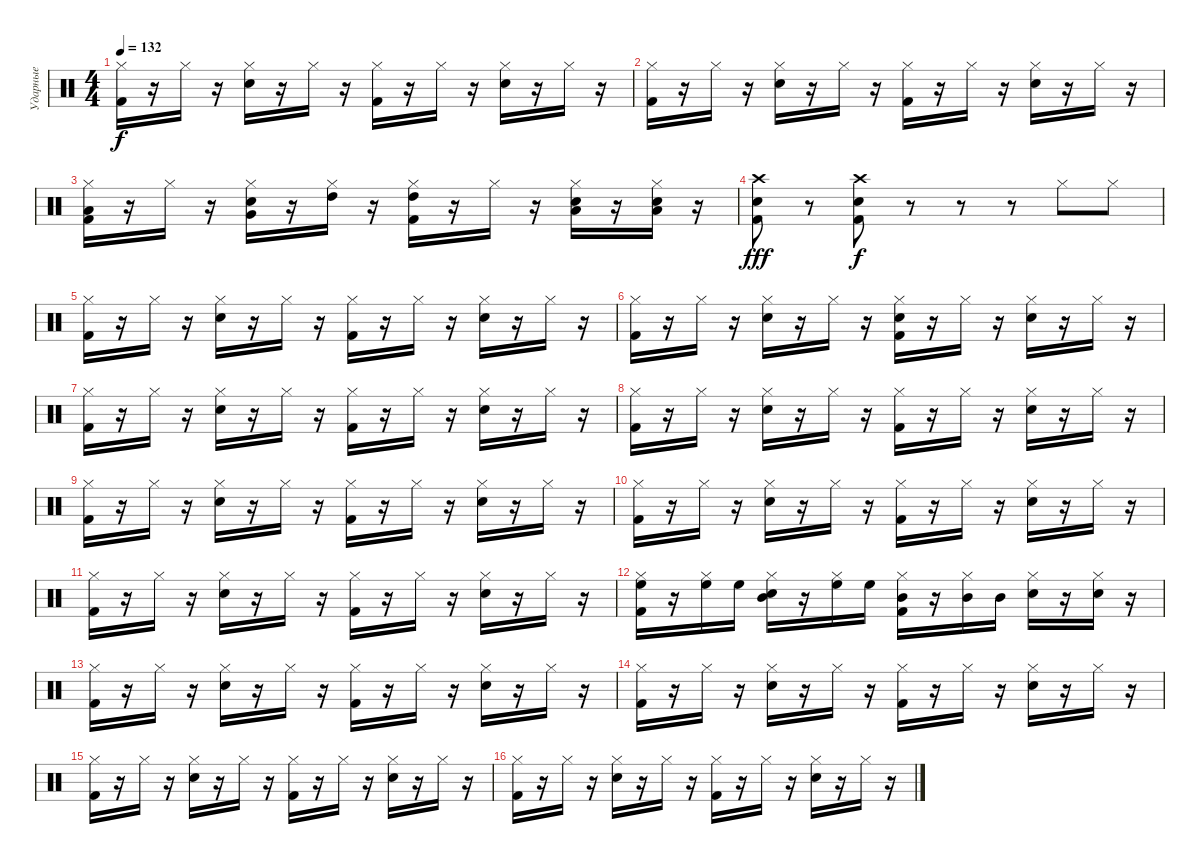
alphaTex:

\track ("Ударные" "Ударные") {instrument percussion}
\staff {score}
\articulation defaults
\ts (4 4)
\tempo 132
\clef neutral
\ks c
("Kick (hit) 2" "Hi-Hat (closed)").16{dy f} r.16 "Hi-Hat (closed)".16 r.16 ("Snare (hit) 2" "Hi-Hat (closed)").16 r.16 "Hi-Hat (closed)".16 r.16 ("Kick (hit) 2" "Hi-Hat (closed)").16 r.16 "Hi-Hat (closed)".16 r.16 ("Snare (hit) 2" "Hi-Hat (closed)").16 r.16 "Hi-Hat (closed)".16 r.16 |
("Kick (hit) 2" "Hi-Hat (closed)").16 r.16 "Hi-Hat (closed)".16 r.16 ("Snare (hit) 2" "Hi-Hat (closed)").16 r.16 "Hi-Hat (closed)".16 r.16 ("Kick (hit) 2" "Hi-Hat (closed)").16 r.16 "Hi-Hat (closed)".16 r.16 ("Snare (hit) 2" "Hi-Hat (closed)").16 r.16 "Hi-Hat (closed)".16 r.16 |
("Kick (hit) 2" "Low Tom (hit)" "Hi-Hat (closed)").16 r.16 "Hi-Hat (closed)".16 r.16 ("Snare (hit) 2" "Very Low Tom (hit)" "Hi-Hat (closed)").16 r.16 ("High Tom (hit)" "Hi-Hat (closed)").16 r.16 ("Kick (hit) 2" "High Tom (hit)" "Hi-Hat (closed)").16 r.16 "Hi-Hat (closed)".16 r.16 ("Snare (hit) 2" "Low Floor Tom (hit)" "Hi-Hat (closed)").16 r.16 ("Snare (hit) 2" "Low Floor Tom (hit)" "Hi-Hat (closed)").16 r.16 |
("Kick (hit) 2" "Snare (hit) 2" "Crash high (hit)").8{dy fff} r.8 ("Kick (hit) 2" "Snare (hit) 2" "Crash high (hit)").8{dy f} r.8 r.8 r.8 "Hi-Hat (closed)".8 "Hi-Hat (closed)".8 |
("Kick (hit) 2" "Hi-Hat (closed)").16 r.16 "Hi-Hat (closed)".16 r.16 ("Snare (hit) 2" "Hi-Hat (closed)").16 r.16 "Hi-Hat (closed)".16 r.16 ("Kick (hit) 2" "Hi-Hat (closed)").16 r.16 "Hi-Hat (closed)".16 r.16 ("Snare (hit) 2" "Hi-Hat (closed)").16 r.16 "Hi-Hat (closed)".16 r.16 |
("Kick (hit) 2" "Hi-Hat (closed)").16 r.16 "Hi-Hat (closed)".16 r.16 ("Snare (hit) 2" "Hi-Hat (closed)").16 r.16 "Hi-Hat (closed)".16 r.16 ("Kick (hit) 2" "Snare (hit)" "Hi-Hat (closed)").16 r.16 "Hi-Hat (closed)".16 r.16 ("Snare (hit) 2" "Hi-Hat (closed)").16 r.16 "Hi-Hat (closed)".16 r.16 |
("Kick (hit) 2" "Hi-Hat (closed)").16 r.16 "Hi-Hat (closed)".16 r.16 ("Snare (hit) 2" "Hi-Hat (closed)").16 r.16 "Hi-Hat (closed)".16 r.16 ("Kick (hit) 2" "Hi-Hat (closed)").16 r.16 "Hi-Hat (closed)".16 r.16 ("Snare (hit) 2" "Hi-Hat (closed)").16 r.16 "Hi-Hat (closed)".16 r.16 |
("Kick (hit) 2" "Hi-Hat (closed)").16 r.16 "Hi-Hat (closed)".16 r.16 ("Snare (hit) 2" "Hi-Hat (closed)").16 r.16 "Hi-Hat (closed)".16 r.16 ("Kick (hit) 2" "Hi-Hat (closed)").16 r.16 "Hi-Hat (closed)".16 r.16 ("Snare (hit) 2" "Hi-Hat (closed)").16 r.16 "Hi-Hat (closed)".16 r.16 |
("Kick (hit) 2" "Hi-Hat (closed)").16 r.16 "Hi-Hat (closed)".16 r.16 ("Snare (hit) 2" "Hi-Hat (closed)").16 r.16 "Hi-Hat (closed)".16 r.16 ("Kick (hit) 2" "Hi-Hat (closed)").16 r.16 "Hi-Hat (closed)".16 r.16 ("Snare (hit) 2" "Hi-Hat (closed)").16 r.16 "Hi-Hat (closed)".16 r.16 |
("Kick (hit) 2" "Hi-Hat (closed)").16 r.16 "Hi-Hat (closed)".16 r.16 ("Snare (hit) 2" "Hi-Hat (closed)").16 r.16 "Hi-Hat (closed)".16 r.16 ("Kick (hit) 2" "Hi-Hat (closed)").16 r.16 "Hi-Hat (closed)".16 r.16 ("Snare (hit) 2" "Hi-Hat (closed)").16 r.16 "Hi-Hat (closed)".16 r.16 |
("Kick (hit) 2" "Hi-Hat (closed)").16 r.16 "Hi-Hat (closed)".16 r.16 ("Snare (hit) 2" "Hi-Hat (closed)").16 r.16 "Hi-Hat (closed)".16 r.16 ("Kick (hit) 2" "Hi-Hat (closed)").16 r.16 "Hi-Hat (closed)".16 r.16 ("Snare (hit) 2" "Hi-Hat (closed)").16 r.16 "Hi-Hat (closed)".16 r.16 |
("Kick (hit) 2" "High Floor Tom (hit)" "Hi-Hat (closed)").16 r.16 ("High Floor Tom (hit)" "Hi-Hat (closed)").16 "High Floor Tom (hit)".16 ("Snare (hit) 2" "Mid Tom (hit)" "Hi-Hat (closed)").16 r.16 ("High Floor Tom (hit)" "Hi-Hat (closed)").16 "High Floor Tom (hit)".16 ("Kick (hit) 2" "Mid Tom (hit)" "Hi-Hat (closed)").16 r.16 ("Mid Tom (hit)" "Hi-Hat (closed)").16 "Mid Tom (hit)".16 ("Snare (hit) 2" "Hi-Hat (closed)").16 r.16 ("Snare (hit) 2" "Hi-Hat (closed)").16 r.16 |
("Kick (hit) 2" "Hi-Hat (closed)").16 r.16 "Hi-Hat (closed)".16 r.16 ("Snare (hit) 2" "Hi-Hat (closed)").16 r.16 "Hi-Hat (closed)".16 r.16 ("Kick (hit) 2" "Hi-Hat (closed)").16 r.16 "Hi-Hat (closed)".16 r.16 ("Snare (hit) 2" "Hi-Hat (closed)").16 r.16 "Hi-Hat (closed)".16 r.16 |
("Kick (hit) 2" "Hi-Hat (closed)").16 r.16 "Hi-Hat (closed)".16 r.16 ("Snare (hit) 2" "Hi-Hat (closed)").16 r.16 "Hi-Hat (closed)".16 r.16 ("Kick (hit) 2" "Hi-Hat (closed)").16 r.16 "Hi-Hat (closed)".16 r.16 ("Snare (hit) 2" "Hi-Hat (closed)").16 r.16 "Hi-Hat (closed)".16 r.16 |
("Kick (hit) 2" "Hi-Hat (closed)").16 r.16 "Hi-Hat (closed)".16 r.16 ("Snare (hit) 2" "Hi-Hat (closed)").16 r.16 "Hi-Hat (closed)".16 r.16 ("Kick (hit) 2" "Hi-Hat (closed)").16 r.16 "Hi-Hat (closed)".16 r.16 ("Snare (hit) 2" "Hi-Hat (closed)").16 r.16 "Hi-Hat (closed)".16 r.16 |
("Kick (hit) 2" "Hi-Hat (closed)").16 r.16 "Hi-Hat (closed)".16 r.16 ("Snare (hit) 2" "Hi-Hat (closed)").16 r.16 "Hi-Hat (closed)".16 r.16 ("Kick (hit) 2" "Hi-Hat (closed)").16 r.16 "Hi-Hat (closed)".16 r.16 ("Snare (hit) 2" "Hi-Hat (closed)").16 r.16 "Hi-Hat (closed)".16 r.16
